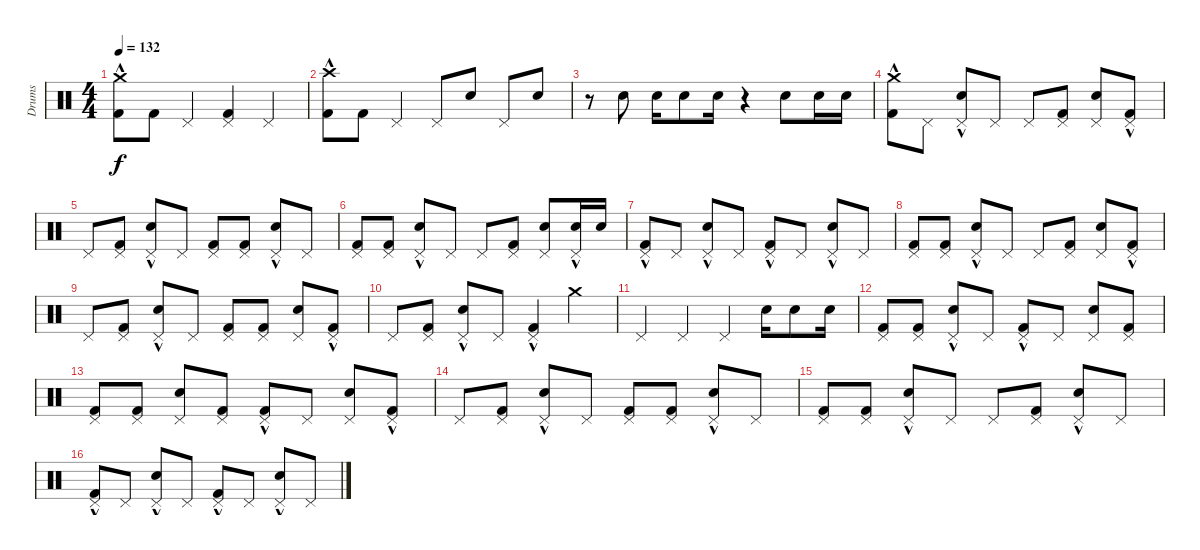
\track ("Drums" "Drums") {instrument percussion}
\staff {score}
\articulation defaults
\ts (4 4)
\tempo 132
\clef neutral
\ks c
("Crash medium (hit)" "Kick (hit) 2"{hac}).8{dy f} "Kick (hit) 2".8 "Pedal Hi-Hat (hit)".4 ("Pedal Hi-Hat (hit)" "Kick (hit) 2").4 "Pedal Hi-Hat (hit)".4 |
("Crash high (hit)" "Kick (hit) 2"{hac}).8 "Kick (hit) 2".8 "Pedal Hi-Hat (hit)".4 "Pedal Hi-Hat (hit)".8 "Snare (hit) 2".8 "Pedal Hi-Hat (hit)".8 "Snare (hit) 2".8 |
r.8 "Snare (hit) 2".8 "Snare (hit) 2".16 "Snare (hit) 2".8 "Snare (hit) 2".16 r.4 "Snare (hit) 2".8 "Snare (hit) 2".16 "Snare (hit) 2".16 |
("Crash medium (hit)"{hac} "Kick (hit) 2").8 "Pedal Hi-Hat (hit)".8 ("Pedal Hi-Hat (hit)"{hac} "Snare (hit) 2").8 "Pedal Hi-Hat (hit)".8 "Pedal Hi-Hat (hit)".8 ("Pedal Hi-Hat (hit)" "Kick (hit) 2").8 ("Pedal Hi-Hat (hit)" "Snare (hit) 2").8 ("Pedal Hi-Hat (hit)"{hac} "Kick (hit) 2"{hac}).8 |
"Pedal Hi-Hat (hit)".8 ("Pedal Hi-Hat (hit)" "Kick (hit) 2").8 ("Pedal Hi-Hat (hit)"{hac} "Snare (hit) 2").8 "Pedal Hi-Hat (hit)".8 ("Pedal Hi-Hat (hit)" "Kick (hit) 2").8 ("Pedal Hi-Hat (hit)" "Kick (hit) 2").8 ("Pedal Hi-Hat (hit)"{hac} "Snare (hit) 2").8 "Pedal Hi-Hat (hit)".8 |
("Pedal Hi-Hat (hit)" "Kick (hit) 2").8 ("Pedal Hi-Hat (hit)" "Kick (hit) 2").8 ("Pedal Hi-Hat (hit)"{hac} "Snare (hit) 2").8 "Pedal Hi-Hat (hit)".8 "Pedal Hi-Hat (hit)".8 ("Pedal Hi-Hat (hit)" "Kick (hit) 2").8 ("Pedal Hi-Hat (hit)" "Snare (hit) 2").8 ("Pedal Hi-Hat (hit)"{hac} "Snare (hit) 2").16 "Snare (hit) 2".16 |
("Pedal Hi-Hat (hit)"{hac} "Kick (hit) 2").8 "Pedal Hi-Hat (hit)".8 ("Pedal Hi-Hat (hit)"{hac} "Snare (hit) 2").8 "Pedal Hi-Hat (hit)".8 ("Pedal Hi-Hat (hit)"{hac} "Kick (hit) 2").8 "Pedal Hi-Hat (hit)".8 ("Pedal Hi-Hat (hit)"{hac} "Snare (hit) 2").8 "Pedal Hi-Hat (hit)".8 |
("Pedal Hi-Hat (hit)" "Kick (hit) 2").8 ("Pedal Hi-Hat (hit)" "Kick (hit) 2").8 ("Pedal Hi-Hat (hit)"{hac} "Snare (hit) 2").8 "Pedal Hi-Hat (hit)".8 "Pedal Hi-Hat (hit)".8 ("Pedal Hi-Hat (hit)" "Kick (hit) 2").8 ("Pedal Hi-Hat (hit)" "Snare (hit) 2").8 ("Pedal Hi-Hat (hit)"{hac} "Kick (hit) 2"{hac}).8 |
"Pedal Hi-Hat (hit)".8 ("Pedal Hi-Hat (hit)" "Kick (hit) 2").8 ("Pedal Hi-Hat (hit)"{hac} "Snare (hit) 2").8 "Pedal Hi-Hat (hit)".8 ("Pedal Hi-Hat (hit)" "Kick (hit) 2").8 ("Pedal Hi-Hat (hit)" "Kick (hit) 2").8 ("Pedal Hi-Hat (hit)" "Snare (hit) 2").8 ("Pedal Hi-Hat (hit)"{hac} "Kick (hit) 2"{hac}).8 |
"Pedal Hi-Hat (hit)".8 ("Pedal Hi-Hat (hit)" "Kick (hit) 2").8 ("Pedal Hi-Hat (hit)"{hac} "Snare (hit) 2").8 "Pedal Hi-Hat (hit)".8 ("Pedal Hi-Hat (hit)" "Kick (hit) 2"{hac}).4 "Crash medium (hit)".4 |
"Pedal Hi-Hat (hit)".4 "Pedal Hi-Hat (hit)".4 "Pedal Hi-Hat (hit)".4 "Snare (hit) 2".16 "Snare (hit) 2".8 "Snare (hit) 2".16 |
("Pedal Hi-Hat (hit)" "Kick (hit) 2").8 ("Pedal Hi-Hat (hit)" "Kick (hit) 2").8 ("Pedal Hi-Hat (hit)"{hac} "Snare (hit) 2").8 "Pedal Hi-Hat (hit)".8 ("Pedal Hi-Hat (hit)"{hac} "Kick (hit) 2").8 "Pedal Hi-Hat (hit)".8 ("Pedal Hi-Hat (hit)" "Snare (hit) 2").8 ("Pedal Hi-Hat (hit)" "Kick (hit) 2").8 |
("Pedal Hi-Hat (hit)" "Kick (hit) 2").8 ("Pedal Hi-Hat (hit)" "Kick (hit) 2").8 ("Pedal Hi-Hat (hit)" "Snare (hit) 2").8 ("Pedal Hi-Hat (hit)" "Kick (hit) 2").8 ("Pedal Hi-Hat (hit)"{hac} "Kick (hit) 2").8 "Pedal Hi-Hat (hit)".8 ("Pedal Hi-Hat (hit)" "Snare (hit) 2").8 ("Pedal Hi-Hat (hit)"{hac} "Kick (hit) 2"{hac}).8 |
"Pedal Hi-Hat (hit)".8 ("Pedal Hi-Hat (hit)" "Kick (hit) 2").8 ("Pedal Hi-Hat (hit)"{hac} "Snare (hit) 2").8 "Pedal Hi-Hat (hit)".8 ("Pedal Hi-Hat (hit)" "Kick (hit) 2").8 ("Pedal Hi-Hat (hit)" "Kick (hit) 2").8 ("Pedal Hi-Hat (hit)"{hac} "Snare (hit) 2").8 "Pedal Hi-Hat (hit)".8 |
("Pedal Hi-Hat (hit)" "Kick (hit) 2").8 ("Pedal Hi-Hat (hit)" "Kick (hit) 2").8 ("Pedal Hi-Hat (hit)"{hac} "Snare (hit) 2").8 "Pedal Hi-Hat (hit)".8 "Pedal Hi-Hat (hit)".8 ("Pedal Hi-Hat (hit)" "Kick (hit) 2").8 ("Pedal Hi-Hat (hit)"{hac} "Snare (hit) 2").8 "Pedal Hi-Hat (hit)".8 |
("Pedal Hi-Hat (hit)"{hac} "Kick (hit) 2").8 "Pedal Hi-Hat (hit)".8 ("Pedal Hi-Hat (hit)"{hac} "Snare (hit) 2").8 "Pedal Hi-Hat (hit)".8 ("Pedal Hi-Hat (hit)"{hac} "Kick (hit) 2").8 "Pedal Hi-Hat (hit)".8 ("Pedal Hi-Hat (hit)"{hac} "Snare (hit) 2").8 "Pedal Hi-Hat (hit)".8
